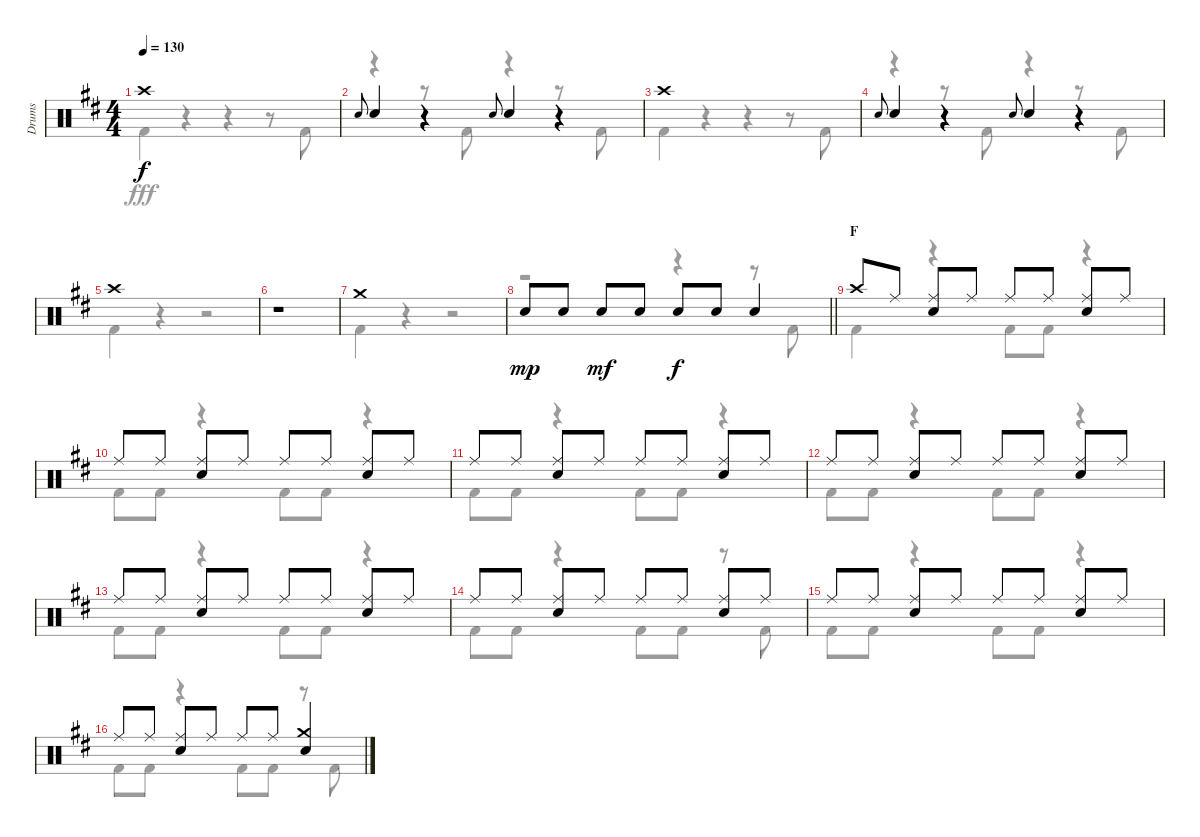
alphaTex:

\track ("Drums" "Drums") {instrument percussion}
\staff {score}
\articulation defaults
\voice
\ts (4 4)
\tempo 130
\clef neutral
\ks d "Crash high (hit)".1{dy f}
|
"Snare (hit) 2".8{gr onbeat} "Snare (hit) 2".4 r.4 "Snare (hit) 2".8{gr onbeat} "Snare (hit) 2".4 r.4 |
"Crash high (hit)".1 |
"Snare (hit) 2".8{gr onbeat} "Snare (hit) 2".4 r.4 "Snare (hit) 2".8{gr onbeat} "Snare (hit) 2".4 r.4 |
"Crash high (hit)".1 |
r.1 |
"Crash medium (hit)".1 |
\barLineRight lightlight "Snare (hit) 2".8{dy mp} "Snare (hit) 2".8 "Snare (hit) 2".8{dy mf} "Snare (hit) 2".8 "Snare (hit) 2".8{dy f} "Snare (hit) 2".8 "Snare (hit) 2".4
|
\section ("" "F")
"Crash high (hit)".8 "Ride (middle)".8 ("Ride (middle)" "Snare (hit) 2").8 "Ride (middle)".8 "Ride (middle)".8 "Ride (middle)".8 ("Ride (middle)" "Snare (hit) 2").8 "Ride (middle)".8 |
"Ride (middle)".8 "Ride (middle)".8 ("Ride (middle)" "Snare (hit) 2").8 "Ride (middle)".8 "Ride (middle)".8 "Ride (middle)".8 ("Ride (middle)" "Snare (hit) 2").8 "Ride (middle)".8 |
"Ride (middle)".8 "Ride (middle)".8 ("Ride (middle)" "Snare (hit) 2").8 "Ride (middle)".8 "Ride (middle)".8 "Ride (middle)".8 ("Ride (middle)" "Snare (hit) 2").8 "Ride (middle)".8 |
"Ride (middle)".8 "Ride (middle)".8 ("Ride (middle)" "Snare (hit) 2").8 "Ride (middle)".8 "Ride (middle)".8 "Ride (middle)".8 ("Ride (middle)" "Snare (hit) 2").8 "Ride (middle)".8 |
"Ride (middle)".8 "Ride (middle)".8 ("Ride (middle)" "Snare (hit) 2").8 "Ride (middle)".8 "Ride (middle)".8 "Ride (middle)".8 ("Ride (middle)" "Snare (hit) 2").8 "Ride (middle)".8 |
"Ride (middle)".8 "Ride (middle)".8 ("Ride (middle)" "Snare (hit) 2").8 "Ride (middle)".8 "Ride (middle)".8 "Ride (middle)".8 ("Ride (middle)" "Snare (hit) 2").8 "Ride (middle)".8 |
"Ride (middle)".8 "Ride (middle)".8 ("Ride (middle)" "Snare (hit) 2").8 "Ride (middle)".8 "Ride (middle)".8 "Ride (middle)".8 ("Ride (middle)" "Snare (hit) 2").8 "Ride (middle)".8 |
"Ride (middle)".8 "Ride (middle)".8 ("Ride (middle)" "Snare (hit) 2").8 "Ride (middle)".8 "Ride (middle)".8 "Ride (middle)".8 ("Crash medium (hit)" "Snare (hit) 2").4
\voice
\clef neutral
\ottava regular
\simile none
\ks d "Kick (hit) 2".4{dy fff}
r.4 r.4 r.8 "Kick (hit) 2".8 |
r.4 r.8 "Kick (hit) 2".8 r.4 r.8 "Kick (hit) 2".8 |
"Kick (hit) 2".4 r.4 r.4 r.8 "Kick (hit) 2".8 |
r.4 r.8 "Kick (hit) 2".8 r.4 r.8 "Kick (hit) 2".8 |
"Kick (hit) 2".4 r.4 r.2 |
r.1 |
"Kick (hit) 2".4 r.4 r.2 |
\barLineRight lightlight
r.2 r.4 r.8 "Kick (hit) 2".8 |
"Kick (hit) 2".4 r.4 "Kick (hit) 2".8 "Kick (hit) 2".8 r.4 |
"Kick (hit) 2".8 "Kick (hit) 2".8 r.4 "Kick (hit) 2".8 "Kick (hit) 2".8 r.4 |
"Kick (hit) 2".8 "Kick (hit) 2".8 r.4 "Kick (hit) 2".8 "Kick (hit) 2".8 r.4 |
"Kick (hit) 2".8 "Kick (hit) 2".8 r.4 "Kick (hit) 2".8 "Kick (hit) 2".8 r.4 |
"Kick (hit) 2".8 "Kick (hit) 2".8 r.4 "Kick (hit) 2".8 "Kick (hit) 2".8 r.4 |
"Kick (hit) 2".8 "Kick (hit) 2".8 r.4 "Kick (hit) 2".8 "Kick (hit) 2".8 r.8 "Kick (hit) 2".8 |
"Kick (hit) 2".8 "Kick (hit) 2".8 r.4 "Kick (hit) 2".8 "Kick (hit) 2".8 r.4 |
"Kick (hit) 2".8 "Kick (hit) 2".8 r.4 "Kick (hit) 2".8 "Kick (hit) 2".8 r.8 "Kick (hit) 2".8
